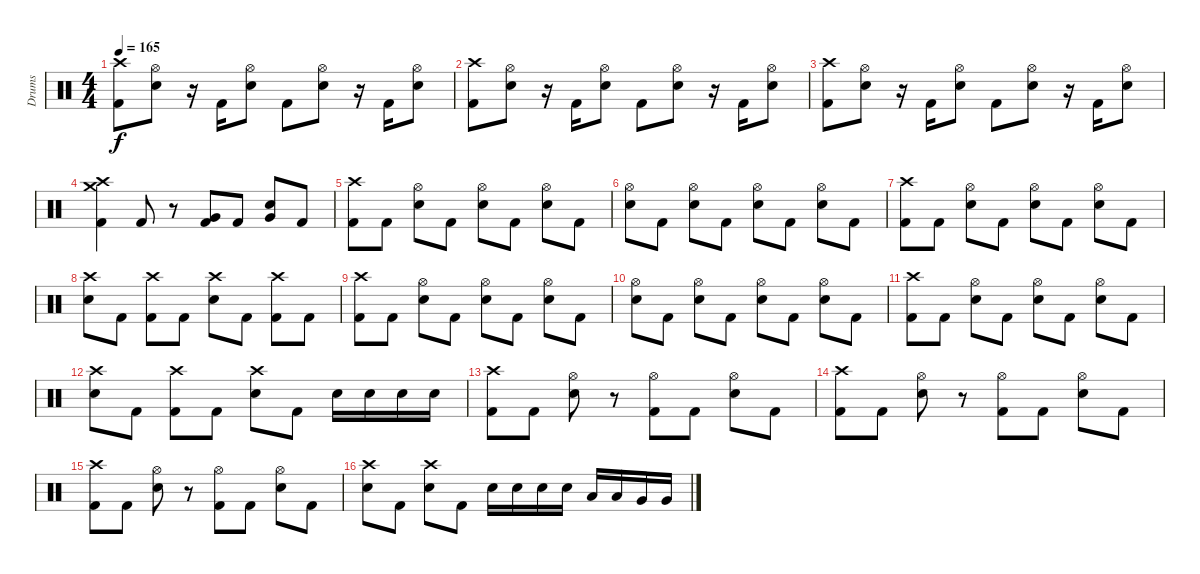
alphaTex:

\track ("Drums" "Drums") {instrument percussion}
\staff {score}
\articulation defaults
\ts (4 4)
\tempo 165
\clef neutral
\ks c
("Crash high (hit)" "Kick (hit) 2").8{dy f} ("Hi-Hat (open)" "Electric Snare (hit)").8 r.16 "Kick (hit) 2".16 ("Hi-Hat (open)" "Electric Snare (hit)").8 "Kick (hit) 2".8 ("Hi-Hat (open)" "Electric Snare (hit)").8 r.16 "Kick (hit) 2".16 ("Hi-Hat (open)" "Electric Snare (hit)").8 |
("Crash high (hit)" "Kick (hit) 2").8 ("Hi-Hat (open)" "Electric Snare (hit)").8 r.16 "Kick (hit) 2".16 ("Hi-Hat (open)" "Electric Snare (hit)").8 "Kick (hit) 2".8 ("Hi-Hat (open)" "Electric Snare (hit)").8 r.16 "Kick (hit) 2".16 ("Hi-Hat (open)" "Electric Snare (hit)").8 |
("Crash high (hit)" "Kick (hit) 2").8 ("Hi-Hat (open)" "Electric Snare (hit)").8 r.16 "Kick (hit) 2".16 ("Hi-Hat (open)" "Electric Snare (hit)").8 "Kick (hit) 2".8 ("Hi-Hat (open)" "Electric Snare (hit)").8 r.16 "Kick (hit) 2".16 ("Hi-Hat (open)" "Electric Snare (hit)").8 |
("Crash high (hit)" "Crash medium (hit)" "Kick (hit) 2").4 "Kick (hit) 2".8 r.8 ("Very Low Tom (hit)" "Kick (hit) 2").8 "Kick (hit) 2".8 ("Very Low Tom (hit)" "Electric Snare (hit)").8 "Kick (hit) 2".8 |
("Crash high (hit)" "Kick (hit) 2").8 "Kick (hit) 2".8 ("Hi-Hat (open)" "Electric Snare (hit)").8 "Kick (hit) 2".8 ("Hi-Hat (open)" "Electric Snare (hit)").8 "Kick (hit) 2".8 ("Hi-Hat (open)" "Electric Snare (hit)").8 "Kick (hit) 2".8 |
("Hi-Hat (open)" "Electric Snare (hit)").8 "Kick (hit) 2".8 ("Hi-Hat (open)" "Electric Snare (hit)").8 "Kick (hit) 2".8 ("Hi-Hat (open)" "Electric Snare (hit)").8 "Kick (hit) 2".8 ("Hi-Hat (open)" "Electric Snare (hit)").8 "Kick (hit) 2".8 |
("Crash high (hit)" "Kick (hit) 2").8 "Kick (hit) 2".8 ("Hi-Hat (open)" "Electric Snare (hit)").8 "Kick (hit) 2".8 ("Hi-Hat (open)" "Electric Snare (hit)").8 "Kick (hit) 2".8 ("Hi-Hat (open)" "Electric Snare (hit)").8 "Kick (hit) 2".8 |
("Crash high (hit)" "Electric Snare (hit)").8 "Kick (hit) 2".8 ("Crash high (hit)" "Kick (hit) 2").8 "Kick (hit) 2".8 ("Crash high (hit)" "Electric Snare (hit)").8 "Kick (hit) 2".8 ("Crash high (hit)" "Kick (hit) 2").8 "Kick (hit) 2".8 |
("Crash high (hit)" "Kick (hit) 2").8 "Kick (hit) 2".8 ("Hi-Hat (open)" "Electric Snare (hit)").8 "Kick (hit) 2".8 ("Hi-Hat (open)" "Electric Snare (hit)").8 "Kick (hit) 2".8 ("Hi-Hat (open)" "Electric Snare (hit)").8 "Kick (hit) 2".8 |
("Hi-Hat (open)" "Electric Snare (hit)").8 "Kick (hit) 2".8 ("Hi-Hat (open)" "Electric Snare (hit)").8 "Kick (hit) 2".8 ("Hi-Hat (open)" "Electric Snare (hit)").8 "Kick (hit) 2".8 ("Hi-Hat (open)" "Electric Snare (hit)").8 "Kick (hit) 2".8 |
("Crash high (hit)" "Kick (hit) 2").8 "Kick (hit) 2".8 ("Hi-Hat (open)" "Electric Snare (hit)").8 "Kick (hit) 2".8 ("Hi-Hat (open)" "Electric Snare (hit)").8 "Kick (hit) 2".8 ("Hi-Hat (open)" "Electric Snare (hit)").8 "Kick (hit) 2".8 |
("Crash high (hit)" "Electric Snare (hit)").8 "Kick (hit) 2".8 ("Crash high (hit)" "Kick (hit) 2").8 "Kick (hit) 2".8 ("Crash high (hit)" "Electric Snare (hit)").8 "Kick (hit) 2".8 "Electric Snare (hit)".16 "Electric Snare (hit)".16 "Electric Snare (hit)".16 "Electric Snare (hit)".16 |
("Crash high (hit)" "Kick (hit) 2").8 "Kick (hit) 2".8 ("Hi-Hat (open)" "Electric Snare (hit)").8 r.8 ("Hi-Hat (open)" "Kick (hit) 2").8 "Kick (hit) 2".8 ("Hi-Hat (open)" "Electric Snare (hit)").8 "Kick (hit) 2".8 |
("Crash high (hit)" "Kick (hit) 2").8 "Kick (hit) 2".8 ("Hi-Hat (open)" "Electric Snare (hit)").8 r.8 ("Hi-Hat (open)" "Kick (hit) 2").8 "Kick (hit) 2".8 ("Hi-Hat (open)" "Electric Snare (hit)").8 "Kick (hit) 2".8 |
("Crash high (hit)" "Kick (hit) 2").8 "Kick (hit) 2".8 ("Hi-Hat (open)" "Electric Snare (hit)").8 r.8 ("Hi-Hat (open)" "Kick (hit) 2").8 "Kick (hit) 2".8 ("Hi-Hat (open)" "Electric Snare (hit)").8 "Kick (hit) 2".8 |
("Crash high (hit)" "Electric Snare (hit)").8 "Kick (hit) 2".8 ("Crash high (hit)" "Electric Snare (hit)").8 "Kick (hit) 2".8 "Electric Snare (hit)".16 "Electric Snare (hit)".16 "Electric Snare (hit)".16 "Electric Snare (hit)".16 "Low Tom (hit)".16 "Low Tom (hit)".16 "Very Low Tom (hit)".16 "Very Low Tom (hit)".16
